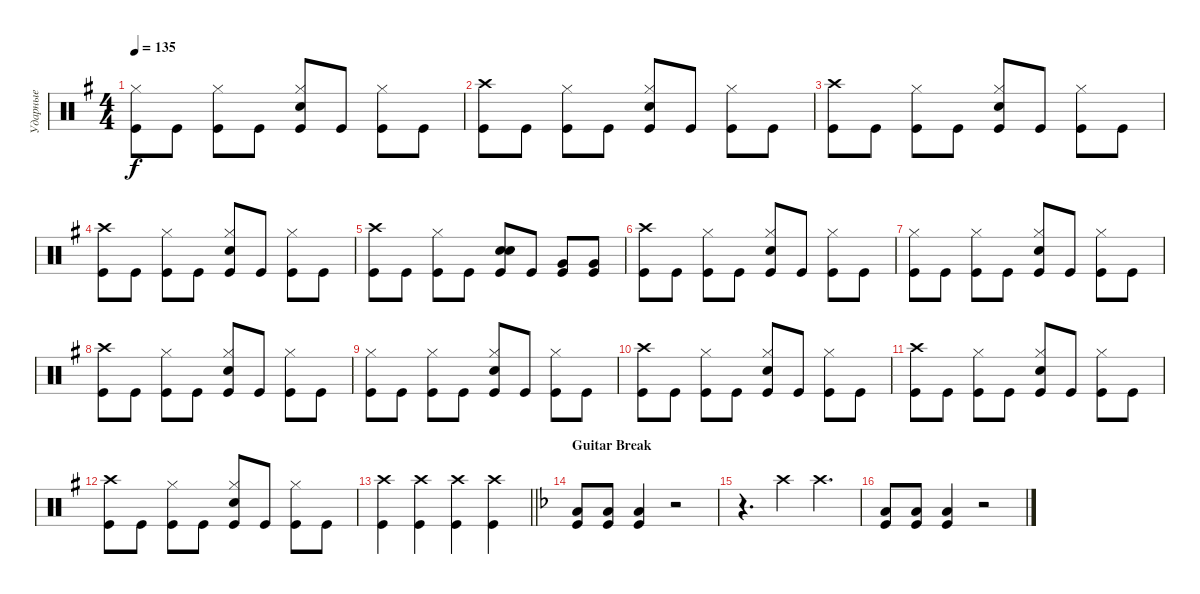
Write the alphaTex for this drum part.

\track ("Ударные" "Ударные") {instrument percussion}
\staff {score}
\articulation defaults
\ts (4 4)
\tempo 135
\clef neutral
\ks eminor
("Kick (hit)" "Hi-Hat (closed)").8{dy f} "Kick (hit)".8 ("Kick (hit)" "Hi-Hat (closed)").8 "Kick (hit)".8 ("Kick (hit)" "Snare (hit) 2" "Hi-Hat (closed)").8 "Kick (hit)".8 ("Kick (hit)" "Hi-Hat (closed)").8 "Kick (hit)".8 |
("Kick (hit)" "Crash high (hit)").8 "Kick (hit)".8 ("Kick (hit)" "Hi-Hat (closed)").8 "Kick (hit)".8 ("Kick (hit)" "Snare (hit) 2" "Hi-Hat (closed)").8 "Kick (hit)".8 ("Kick (hit)" "Hi-Hat (closed)").8 "Kick (hit)".8 |
("Kick (hit)" "Crash high (hit)").8 "Kick (hit)".8 ("Kick (hit)" "Hi-Hat (closed)").8 "Kick (hit)".8 ("Kick (hit)" "Snare (hit) 2" "Hi-Hat (closed)").8 "Kick (hit)".8 ("Kick (hit)" "Hi-Hat (closed)").8 "Kick (hit)".8 |
("Kick (hit)" "Crash high (hit)").8 "Kick (hit)".8 ("Kick (hit)" "Hi-Hat (closed)").8 "Kick (hit)".8 ("Kick (hit)" "Snare (hit) 2" "Hi-Hat (closed)").8 "Kick (hit)".8 ("Kick (hit)" "Hi-Hat (closed)").8 "Kick (hit)".8 |
("Kick (hit)" "Crash high (hit)").8 "Kick (hit)".8 ("Kick (hit)" "Hi-Hat (closed)").8 "Kick (hit)".8 ("Kick (hit)" "Snare (hit) 2" "Snare (hit) 2").8{bd 60} "Kick (hit)".8 ("Kick (hit)" "Very Low Tom (hit)").8 ("Kick (hit)" "Very Low Tom (hit)").8 |
("Kick (hit)" "Crash high (hit)").8 "Kick (hit)".8 ("Kick (hit)" "Hi-Hat (closed)").8 "Kick (hit)".8 ("Kick (hit)" "Snare (hit) 2" "Hi-Hat (closed)").8 "Kick (hit)".8 ("Kick (hit)" "Hi-Hat (closed)").8 "Kick (hit)".8 |
("Kick (hit)" "Hi-Hat (closed)").8 "Kick (hit)".8 ("Kick (hit)" "Hi-Hat (closed)").8 "Kick (hit)".8 ("Kick (hit)" "Snare (hit) 2" "Hi-Hat (closed)").8 "Kick (hit)".8 ("Kick (hit)" "Hi-Hat (closed)").8 "Kick (hit)".8 |
("Kick (hit)" "Crash high (hit)").8 "Kick (hit)".8 ("Kick (hit)" "Hi-Hat (closed)").8 "Kick (hit)".8 ("Kick (hit)" "Snare (hit) 2" "Hi-Hat (closed)").8 "Kick (hit)".8 ("Kick (hit)" "Hi-Hat (closed)").8 "Kick (hit)".8 |
("Kick (hit)" "Hi-Hat (closed)").8 "Kick (hit)".8 ("Kick (hit)" "Hi-Hat (closed)").8 "Kick (hit)".8 ("Kick (hit)" "Snare (hit) 2" "Hi-Hat (closed)").8 "Kick (hit)".8 ("Kick (hit)" "Hi-Hat (closed)").8 "Kick (hit)".8 |
("Kick (hit)" "Crash high (hit)").8 "Kick (hit)".8 ("Kick (hit)" "Hi-Hat (closed)").8 "Kick (hit)".8 ("Kick (hit)" "Snare (hit) 2" "Hi-Hat (closed)").8 "Kick (hit)".8 ("Kick (hit)" "Hi-Hat (closed)").8 "Kick (hit)".8 |
("Kick (hit)" "Crash high (hit)").8 "Kick (hit)".8 ("Kick (hit)" "Hi-Hat (closed)").8 "Kick (hit)".8 ("Kick (hit)" "Snare (hit) 2" "Hi-Hat (closed)").8 "Kick (hit)".8 ("Kick (hit)" "Hi-Hat (closed)").8 "Kick (hit)".8 |
("Kick (hit)" "Crash high (hit)").8 "Kick (hit)".8 ("Kick (hit)" "Hi-Hat (closed)").8 "Kick (hit)".8 ("Kick (hit)" "Snare (hit) 2" "Hi-Hat (closed)").8 "Kick (hit)".8 ("Kick (hit)" "Hi-Hat (closed)").8 "Kick (hit)".8 |
\barLineRight lightlight
("Kick (hit)" "Crash high (hit)").4 ("Kick (hit)" "Crash high (hit)").4 ("Kick (hit)" "Crash high (hit)").4 ("Kick (hit)" "Crash high (hit)").4 |
\section ("" "Guitar Break")
\ks dminor
("Kick (hit)" "Low Tom (hit)").8 ("Kick (hit)" "Low Tom (hit)").8 ("Kick (hit)" "Low Tom (hit)").4 r.2 |
r.4{d} "Crash high (hit)".4 "Crash high (hit)".4{d} |
("Kick (hit)" "Low Tom (hit)").8 ("Kick (hit)" "Low Tom (hit)").8 ("Kick (hit)" "Low Tom (hit)").4 r.2
